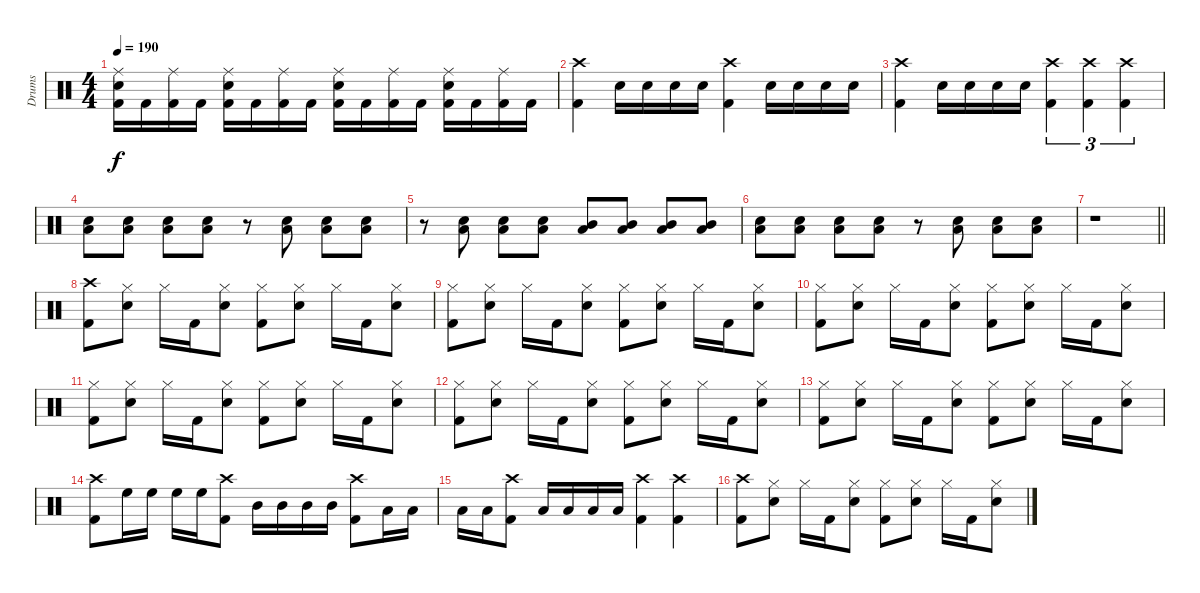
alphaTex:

\track ("Drums" "Drums") {instrument percussion}
\staff {score}
\articulation defaults
\ts (4 4)
\tempo 190
\clef neutral
\ks c
("Ride (middle)" "Snare (hit) 2" "Kick (hit) 2").16{dy f} "Kick (hit) 2".16 ("Ride (middle)" "Kick (hit) 2").16 "Kick (hit) 2".16 ("Ride (middle)" "Snare (hit) 2" "Kick (hit) 2").16 "Kick (hit) 2".16 ("Ride (middle)" "Kick (hit) 2").16 "Kick (hit) 2".16 ("Ride (middle)" "Snare (hit) 2" "Kick (hit) 2").16 "Kick (hit) 2".16 ("Ride (middle)" "Kick (hit) 2").16 "Kick (hit) 2".16 ("Ride (middle)" "Snare (hit) 2" "Kick (hit) 2").16 "Kick (hit) 2".16 ("Ride (middle)" "Kick (hit) 2").16 "Kick (hit) 2".16 |
("Crash high (hit)" "Kick (hit) 2").4 "Snare (hit) 2".16 "Snare (hit) 2".16 "Snare (hit) 2".16 "Snare (hit) 2".16 ("Crash high (hit)" "Kick (hit) 2").4 "Snare (hit) 2".16 "Snare (hit) 2".16 "Snare (hit) 2".16 "Snare (hit) 2".16 |
("Crash high (hit)" "Kick (hit) 2").4 "Snare (hit) 2".16 "Snare (hit) 2".16 "Snare (hit) 2".16 "Snare (hit) 2".16 ("Crash high (hit)" "Kick (hit) 2").4{tu (3 2)} ("Crash high (hit)" "Kick (hit) 2").4{tu (3 2)} ("Crash high (hit)" "Kick (hit) 2").4{tu (3 2)} |
("Snare (hit) 2" "Low Floor Tom (hit)").8 ("Snare (hit) 2" "Low Floor Tom (hit)").8 ("Snare (hit) 2" "Low Floor Tom (hit)").8 ("Snare (hit) 2" "Low Floor Tom (hit)").8 r.8 ("Snare (hit) 2" "Low Floor Tom (hit)").8 ("Snare (hit) 2" "Low Floor Tom (hit)").8 ("Snare (hit) 2" "Low Floor Tom (hit)").8 |
r.8 ("Snare (hit) 2" "Low Floor Tom (hit)").8 ("Snare (hit) 2" "Low Floor Tom (hit)").8 ("Snare (hit) 2" "Low Floor Tom (hit)").8 ("Mid Tom (hit)" "Low Floor Tom (hit)").8 ("Mid Tom (hit)" "Low Floor Tom (hit)").8 ("Mid Tom (hit)" "Low Floor Tom (hit)").8 ("Mid Tom (hit)" "Low Floor Tom (hit)").8 |
("Snare (hit) 2" "Low Floor Tom (hit)").8 ("Snare (hit) 2" "Low Floor Tom (hit)").8 ("Snare (hit) 2" "Low Floor Tom (hit)").8 ("Snare (hit) 2" "Low Floor Tom (hit)").8 r.8 ("Snare (hit) 2" "Low Floor Tom (hit)").8 ("Snare (hit) 2" "Low Floor Tom (hit)").8 ("Snare (hit) 2" "Low Floor Tom (hit)").8 |
\barLineRight lightlight
r.1 |
("Crash high (hit)" "Kick (hit) 2").8 ("Hi-Hat (closed)" "Snare (hit) 2").8 "Hi-Hat (closed)".16 "Kick (hit) 2".16 ("Hi-Hat (closed)" "Snare (hit) 2").8 ("Hi-Hat (closed)" "Kick (hit) 2").8 ("Hi-Hat (closed)" "Snare (hit) 2").8 "Hi-Hat (closed)".16 "Kick (hit) 2".16 ("Hi-Hat (closed)" "Snare (hit) 2").8 |
("Hi-Hat (closed)" "Kick (hit) 2").8 ("Hi-Hat (closed)" "Snare (hit) 2").8 "Hi-Hat (closed)".16 "Kick (hit) 2".16 ("Hi-Hat (closed)" "Snare (hit) 2").8 ("Hi-Hat (closed)" "Kick (hit) 2").8 ("Hi-Hat (closed)" "Snare (hit) 2").8 "Hi-Hat (closed)".16 "Kick (hit) 2".16 ("Hi-Hat (closed)" "Snare (hit) 2").8 |
("Hi-Hat (closed)" "Kick (hit) 2").8 ("Hi-Hat (closed)" "Snare (hit) 2").8 "Hi-Hat (closed)".16 "Kick (hit) 2".16 ("Hi-Hat (closed)" "Snare (hit) 2").8 ("Hi-Hat (closed)" "Kick (hit) 2").8 ("Hi-Hat (closed)" "Snare (hit) 2").8 "Hi-Hat (closed)".16 "Kick (hit) 2".16 ("Hi-Hat (closed)" "Snare (hit) 2").8 |
("Hi-Hat (closed)" "Kick (hit) 2").8 ("Hi-Hat (closed)" "Snare (hit) 2").8 "Hi-Hat (closed)".16 "Kick (hit) 2".16 ("Hi-Hat (closed)" "Snare (hit) 2").8 ("Hi-Hat (closed)" "Kick (hit) 2").8 ("Hi-Hat (closed)" "Snare (hit) 2").8 "Hi-Hat (closed)".16 "Kick (hit) 2".16 ("Hi-Hat (closed)" "Snare (hit) 2").8 |
("Hi-Hat (closed)" "Kick (hit) 2").8 ("Hi-Hat (closed)" "Snare (hit) 2").8 "Hi-Hat (closed)".16 "Kick (hit) 2".16 ("Hi-Hat (closed)" "Snare (hit) 2").8 ("Hi-Hat (closed)" "Kick (hit) 2").8 ("Hi-Hat (closed)" "Snare (hit) 2").8 "Hi-Hat (closed)".16 "Kick (hit) 2".16 ("Hi-Hat (closed)" "Snare (hit) 2").8 |
("Hi-Hat (closed)" "Kick (hit) 2").8 ("Hi-Hat (closed)" "Snare (hit) 2").8 "Hi-Hat (closed)".16 "Kick (hit) 2".16 ("Hi-Hat (closed)" "Snare (hit) 2").8 ("Hi-Hat (closed)" "Kick (hit) 2").8 ("Hi-Hat (closed)" "Snare (hit) 2").8 "Hi-Hat (closed)".16 "Kick (hit) 2".16 ("Hi-Hat (closed)" "Snare (hit) 2").8 |
("Crash high (hit)" "Kick (hit) 2").8 "High Floor Tom (hit)".16 "High Floor Tom (hit)".16 "High Floor Tom (hit)".16 "High Floor Tom (hit)".16 ("Crash high (hit)" "Kick (hit) 2").8 "Mid Tom (hit)".16 "Mid Tom (hit)".16 "Mid Tom (hit)".16 "Mid Tom (hit)".16 ("Crash high (hit)" "Kick (hit) 2").8 "Low Tom (hit)".16 "Low Tom (hit)".16 |
"Low Tom (hit)".16 "Low Tom (hit)".16 ("Crash high (hit)" "Kick (hit) 2").8 "Low Floor Tom (hit)".16 "Low Floor Tom (hit)".16 "Low Floor Tom (hit)".16 "Low Floor Tom (hit)".16 ("Crash high (hit)" "Kick (hit) 2").4 ("Crash high (hit)" "Kick (hit) 2").4 |
("Crash high (hit)" "Kick (hit) 2").8 ("Hi-Hat (closed)" "Snare (hit) 2").8 "Hi-Hat (closed)".16 "Kick (hit) 2".16 ("Hi-Hat (closed)" "Snare (hit) 2").8 ("Hi-Hat (closed)" "Kick (hit) 2").8 ("Hi-Hat (closed)" "Snare (hit) 2").8 "Hi-Hat (closed)".16 "Kick (hit) 2".16 ("Hi-Hat (closed)" "Snare (hit) 2").8
